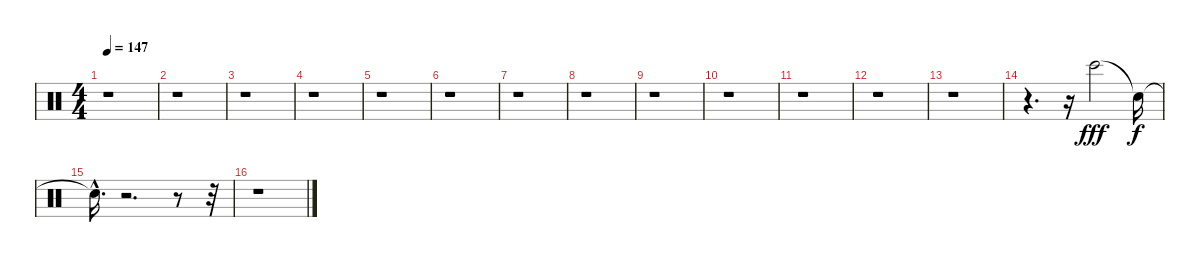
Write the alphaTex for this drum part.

\track "" {instrument percussion}
\staff {score}
\articulation defaults
\ts (4 4)
\tempo 147
\clef neutral
\ks c
r.1{dy fff} |
r.1 |
r.1 |
r.1 |
r.1 |
r.1 |
r.1 |
r.1 |
r.1 |
r.1 |
r.1 |
r.1 |
r.1 |
r.4{d} r.16 "Bongo High (hit)".2 "Snare (hit)"{t}.16{dy f} |
"Snare (hit)"{hac t}.16{d} r.2{d} r.8 r.32 |
r.1
